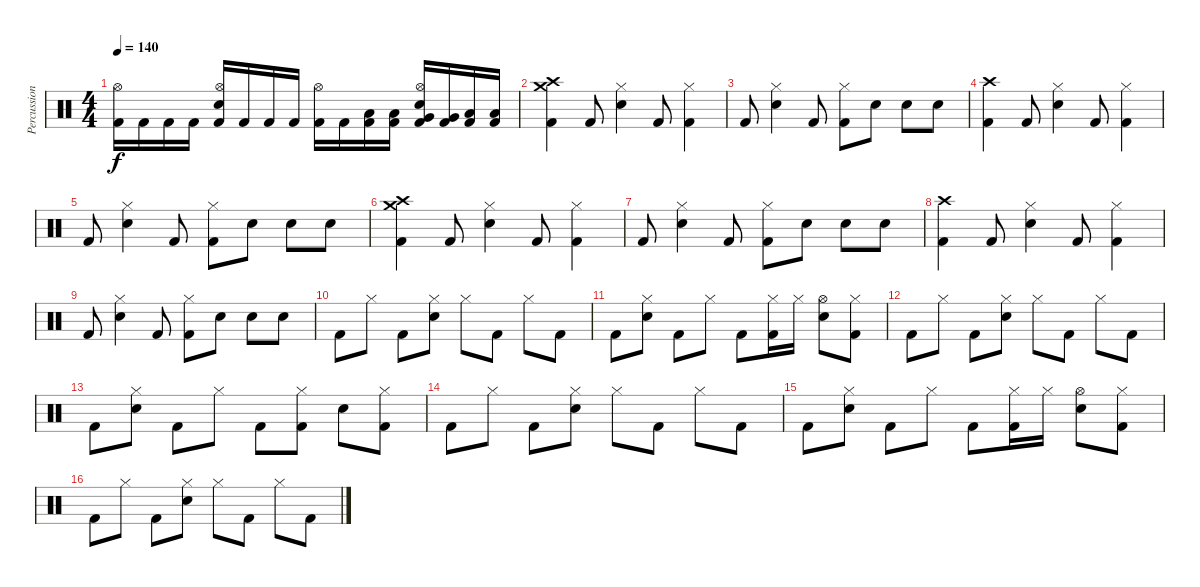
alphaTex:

\track ("Percussion" "Percussion") {instrument percussion}
\staff {score}
\articulation defaults
\ts (4 4)
\tempo 140
\clef neutral
\ks c
("Kick (hit) 2" "Hi-Hat (open)").16{dy f} "Kick (hit) 2".16 "Kick (hit) 2".16 "Kick (hit) 2".16 ("Kick (hit) 2" "Electric Snare (hit)" "Hi-Hat (open)").16 "Kick (hit) 2".16 "Kick (hit) 2".16 "Kick (hit) 2".16 ("Kick (hit) 2" "Hi-Hat (open)").16 "Kick (hit) 2".16 ("Low Tom (hit)" "Kick (hit) 2").16 ("Low Tom (hit)" "Kick (hit) 2").16 ("Very Low Tom (hit)" "Kick (hit) 2" "Electric Snare (hit)" "Hi-Hat (open)").16 ("Very Low Tom (hit)" "Kick (hit) 2").16 ("Low Floor Tom (hit)" "Kick (hit) 2").16 ("Low Floor Tom (hit)" "Kick (hit) 2").16 |
("Crash medium (hit)" "Crash high (hit)" "Kick (hit) 2").4 "Kick (hit) 2".8 ("Electric Snare (hit)" "Hi-Hat (closed)").4 "Kick (hit) 2".8 ("Kick (hit) 2" "Hi-Hat (closed)").4 |
"Kick (hit) 2".8 ("Electric Snare (hit)" "Hi-Hat (closed)").4 "Kick (hit) 2".8 ("Kick (hit) 2" "Hi-Hat (closed)").8 "Electric Snare (hit)".8 "Electric Snare (hit)".8 "Electric Snare (hit)".8 |
\section ("" "")
("Crash high (hit)" "Kick (hit) 2").4 "Kick (hit) 2".8 ("Electric Snare (hit)" "Hi-Hat (closed)").4 "Kick (hit) 2".8 ("Kick (hit) 2" "Hi-Hat (closed)").4 |
"Kick (hit) 2".8 ("Electric Snare (hit)" "Hi-Hat (closed)").4 "Kick (hit) 2".8 ("Kick (hit) 2" "Hi-Hat (closed)").8 "Electric Snare (hit)".8 "Electric Snare (hit)".8 "Electric Snare (hit)".8 |
("Crash medium (hit)" "Crash high (hit)" "Kick (hit) 2").4 "Kick (hit) 2".8 ("Electric Snare (hit)" "Hi-Hat (closed)").4 "Kick (hit) 2".8 ("Kick (hit) 2" "Hi-Hat (closed)").4 |
"Kick (hit) 2".8 ("Electric Snare (hit)" "Hi-Hat (closed)").4 "Kick (hit) 2".8 ("Kick (hit) 2" "Hi-Hat (closed)").8 "Electric Snare (hit)".8 "Electric Snare (hit)".8 "Electric Snare (hit)".8 |
("Crash high (hit)" "Kick (hit) 2").4 "Kick (hit) 2".8 ("Electric Snare (hit)" "Hi-Hat (closed)").4 "Kick (hit) 2".8 ("Kick (hit) 2" "Hi-Hat (closed)").4 |
"Kick (hit) 2".8 ("Electric Snare (hit)" "Hi-Hat (closed)").4 "Kick (hit) 2".8 ("Kick (hit) 2" "Hi-Hat (closed)").8 "Electric Snare (hit)".8 "Electric Snare (hit)".8 "Electric Snare (hit)".8 |
"Kick (hit) 2".8 "Hi-Hat (closed)".8 "Kick (hit) 2".8 ("Electric Snare (hit)" "Hi-Hat (closed)").8 "Hi-Hat (closed)".8 "Kick (hit) 2".8 "Hi-Hat (closed)".8 "Kick (hit) 2".8 |
"Kick (hit) 2".8 ("Electric Snare (hit)" "Hi-Hat (closed)").8 "Kick (hit) 2".8 "Hi-Hat (closed)".8 "Kick (hit) 2".8 ("Kick (hit) 2" "Hi-Hat (closed)").16 "Hi-Hat (closed)".16 ("Electric Snare (hit)" "Hi-Hat (open)").8 ("Kick (hit) 2" "Hi-Hat (closed)").8 |
"Kick (hit) 2".8 "Hi-Hat (closed)".8 "Kick (hit) 2".8 ("Electric Snare (hit)" "Hi-Hat (closed)").8 "Hi-Hat (closed)".8 "Kick (hit) 2".8 "Hi-Hat (closed)".8 "Kick (hit) 2".8 |
"Kick (hit) 2".8 ("Electric Snare (hit)" "Hi-Hat (closed)").8 "Kick (hit) 2".8 "Hi-Hat (closed)".8 "Kick (hit) 2".8 ("Kick (hit) 2" "Hi-Hat (closed)").8 "Electric Snare (hit)".8 ("Kick (hit) 2" "Hi-Hat (closed)").8 |
"Kick (hit) 2".8 "Hi-Hat (closed)".8 "Kick (hit) 2".8 ("Electric Snare (hit)" "Hi-Hat (closed)").8 "Hi-Hat (closed)".8 "Kick (hit) 2".8 "Hi-Hat (closed)".8 "Kick (hit) 2".8 |
"Kick (hit) 2".8 ("Electric Snare (hit)" "Hi-Hat (closed)").8 "Kick (hit) 2".8 "Hi-Hat (closed)".8 "Kick (hit) 2".8 ("Kick (hit) 2" "Hi-Hat (closed)").16 "Hi-Hat (closed)".16 ("Electric Snare (hit)" "Hi-Hat (open)").8 ("Kick (hit) 2" "Hi-Hat (closed)").8 |
"Kick (hit) 2".8 "Hi-Hat (closed)".8 "Kick (hit) 2".8 ("Electric Snare (hit)" "Hi-Hat (closed)").8 "Hi-Hat (closed)".8 "Kick (hit) 2".8 "Hi-Hat (closed)".8 "Kick (hit) 2".8
